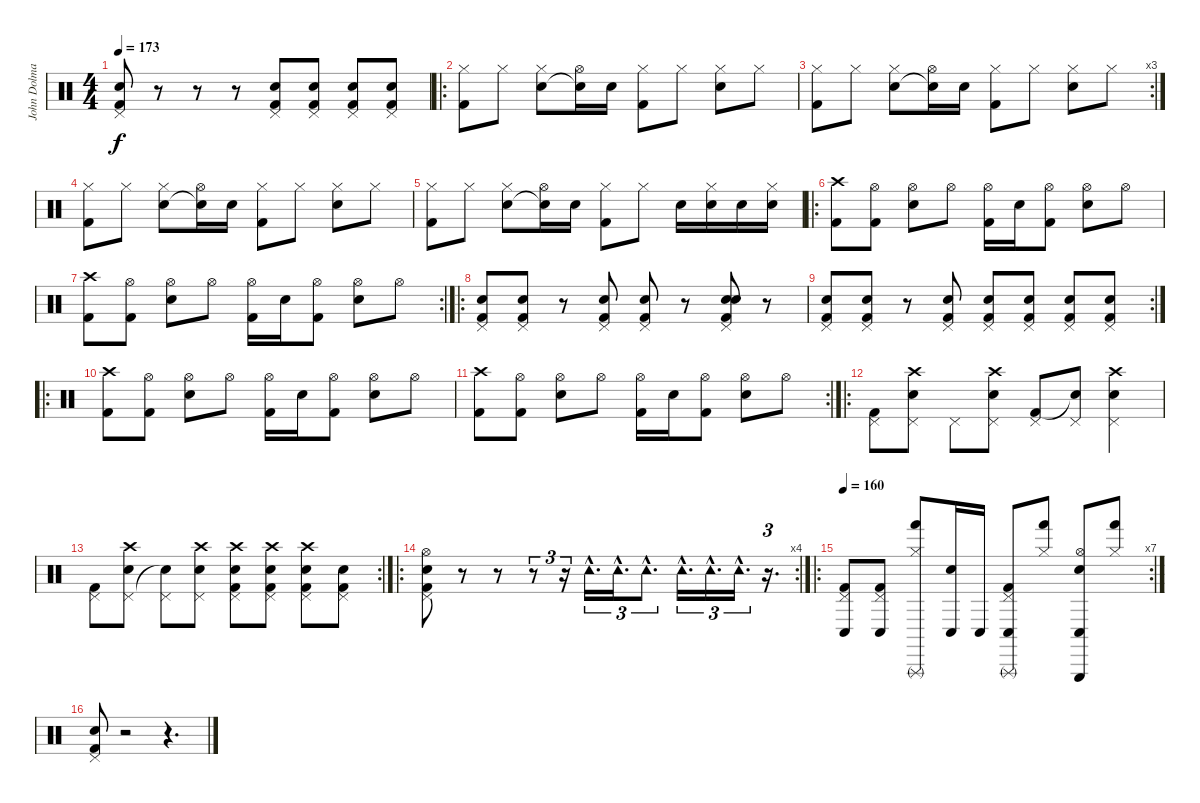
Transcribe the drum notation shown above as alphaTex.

\track ("John Dolmayan" "John Dolma") {instrument percussion}
\staff {score}
\articulation defaults
\ts (4 4)
\tempo 173
\clef neutral
\ks c
("Pedal Hi-Hat (hit)" "Electric Snare (hit)" "Kick (hit) 2").8{dy f} r.8 r.8 r.8 ("Pedal Hi-Hat (hit)" "Electric Snare (hit)" "Kick (hit) 2").8 ("Pedal Hi-Hat (hit)" "Electric Snare (hit)" "Kick (hit) 2").8 ("Pedal Hi-Hat (hit)" "Electric Snare (hit)" "Kick (hit) 2").8 ("Pedal Hi-Hat (hit)" "Electric Snare (hit)" "Kick (hit) 2").8 |
\ro
("Hi-Hat (closed)" "Kick (hit) 2").8 "Hi-Hat (closed)".8 ("Hi-Hat (closed)" "Electric Snare (hit)").8 ("Hi-Hat (open)" "Snare (hit)"{t}).16 "Electric Snare (hit)".16 ("Hi-Hat (closed)" "Kick (hit) 2").8 "Hi-Hat (closed)".8 ("Hi-Hat (closed)" "Electric Snare (hit)").8 "Hi-Hat (closed)".8 |
\rc 3
("Hi-Hat (closed)" "Kick (hit) 2").8 "Hi-Hat (closed)".8 ("Hi-Hat (closed)" "Electric Snare (hit)").8 ("Hi-Hat (open)" "Snare (hit)"{t}).16 "Electric Snare (hit)".16 ("Hi-Hat (closed)" "Kick (hit) 2").8 "Hi-Hat (closed)".8 ("Hi-Hat (closed)" "Electric Snare (hit)").8 "Hi-Hat (closed)".8 |
("Hi-Hat (closed)" "Kick (hit) 2").8 "Hi-Hat (closed)".8 ("Hi-Hat (closed)" "Electric Snare (hit)").8 ("Hi-Hat (open)" "Snare (hit)"{t}).16 "Electric Snare (hit)".16 ("Hi-Hat (closed)" "Kick (hit) 2").8 "Hi-Hat (closed)".8 ("Hi-Hat (closed)" "Electric Snare (hit)").8 "Hi-Hat (closed)".8 |
("Hi-Hat (closed)" "Kick (hit) 2").8 "Hi-Hat (closed)".8 ("Hi-Hat (closed)" "Electric Snare (hit)").8 ("Hi-Hat (open)" "Snare (hit)"{t}).16 "Electric Snare (hit)".16 ("Hi-Hat (closed)" "Kick (hit) 2").8 "Hi-Hat (closed)".8 "Electric Snare (hit)".16 ("Hi-Hat (closed)" "Electric Snare (hit)").16 "Electric Snare (hit)".16 ("Hi-Hat (closed)" "Electric Snare (hit)").16 |
\ro
("Crash high (hit)" "Kick (hit) 2").8 ("Hi-Hat (open)" "Kick (hit) 2").8 ("Hi-Hat (open)" "Electric Snare (hit)").8 "Hi-Hat (open)".8 ("Hi-Hat (open)" "Kick (hit) 2").16 "Electric Snare (hit)".16 ("Hi-Hat (open)" "Kick (hit) 2").8 ("Hi-Hat (open)" "Electric Snare (hit)").8 "Hi-Hat (open)".8 |
\rc 2
("Crash high (hit)" "Kick (hit) 2").8 ("Hi-Hat (open)" "Kick (hit) 2").8 ("Hi-Hat (open)" "Electric Snare (hit)").8 "Hi-Hat (open)".8 ("Hi-Hat (open)" "Kick (hit) 2").16 "Electric Snare (hit)".16 ("Hi-Hat (open)" "Kick (hit) 2").8 ("Hi-Hat (open)" "Electric Snare (hit)").8 "Hi-Hat (open)".8 |
\ro
("Pedal Hi-Hat (hit)" "Electric Snare (hit)" "Kick (hit) 2").8 ("Pedal Hi-Hat (hit)" "Electric Snare (hit)" "Kick (hit) 2").8 r.8 ("Pedal Hi-Hat (hit)" "Electric Snare (hit)" "Kick (hit) 2").8 ("Pedal Hi-Hat (hit)" "Electric Snare (hit)" "Kick (hit) 2").8 r.8 ("Pedal Hi-Hat (hit)" "Electric Snare (hit)" "Electric Snare (hit)" "Kick (hit) 2").8 r.8 |
\rc 2
("Pedal Hi-Hat (hit)" "Electric Snare (hit)" "Kick (hit) 2").8 ("Pedal Hi-Hat (hit)" "Electric Snare (hit)" "Kick (hit) 2").8 r.8 ("Pedal Hi-Hat (hit)" "Electric Snare (hit)" "Kick (hit) 2").8 ("Pedal Hi-Hat (hit)" "Electric Snare (hit)" "Kick (hit) 2").8 ("Pedal Hi-Hat (hit)" "Electric Snare (hit)" "Kick (hit) 2").8 ("Pedal Hi-Hat (hit)" "Electric Snare (hit)" "Kick (hit) 2").8 ("Pedal Hi-Hat (hit)" "Electric Snare (hit)" "Kick (hit) 2").8 |
\ro
("Crash high (hit)" "Kick (hit) 2").8 ("Hi-Hat (open)" "Kick (hit) 2").8 ("Hi-Hat (open)" "Electric Snare (hit)").8 "Hi-Hat (open)".8 ("Hi-Hat (open)" "Kick (hit) 2").16 "Electric Snare (hit)".16 ("Hi-Hat (open)" "Kick (hit) 2").8 ("Hi-Hat (open)" "Electric Snare (hit)").8 "Hi-Hat (open)".8 |
\rc 2
("Crash high (hit)" "Kick (hit) 2").8 ("Hi-Hat (open)" "Kick (hit) 2").8 ("Hi-Hat (open)" "Electric Snare (hit)").8 "Hi-Hat (open)".8 ("Hi-Hat (open)" "Kick (hit) 2").16 "Electric Snare (hit)".16 ("Hi-Hat (open)" "Kick (hit) 2").8 ("Hi-Hat (open)" "Electric Snare (hit)").8 "Hi-Hat (open)".8 |
\ro
("Pedal Hi-Hat (hit)" "Kick (hit) 2").8 ("Crash high (hit)" "Pedal Hi-Hat (hit)" "Electric Snare (hit)").8 "Pedal Hi-Hat (hit)".8 ("Crash high (hit)" "Pedal Hi-Hat (hit)" "Electric Snare (hit)").8 ("Pedal Hi-Hat (hit)" "Kick (hit) 2").8 ("Pedal Hi-Hat (hit)" "Snare (hit)"{t}).8 ("Crash high (hit)" "Pedal Hi-Hat (hit)" "Electric Snare (hit)").4 |
\rc 2
("Pedal Hi-Hat (hit)" "Kick (hit) 2").8 ("Crash high (hit)" "Pedal Hi-Hat (hit)" "Electric Snare (hit)").8 ("Pedal Hi-Hat (hit)" "Snare (hit)"{t}).8 ("Crash high (hit)" "Pedal Hi-Hat (hit)" "Electric Snare (hit)").8 ("Crash high (hit)" "Pedal Hi-Hat (hit)" "Electric Snare (hit)" "Kick (hit) 2").8 ("Crash high (hit)" "Pedal Hi-Hat (hit)" "Electric Snare (hit)" "Kick (hit) 2").8 ("Crash high (hit)" "Pedal Hi-Hat (hit)" "Electric Snare (hit)" "Kick (hit) 2").8 ("Pedal Hi-Hat (hit)" "Electric Snare (hit)" "Kick (hit) 2").8 |
\ro
\rc 4
("Hi-Hat (open)" "Pedal Hi-Hat (hit)" "Electric Snare (hit)" "Kick (hit) 2").8 r.8 r.8 r.8{tu (3 2)} r.16{tu (3 2)} "Tambourine (hit)"{hac}.16{d tu (3 2)} "Tambourine (hit)"{hac}.16{d tu (3 2)} "Tambourine (hit)"{hac}.8{d tu (3 2)} "Tambourine (hit)"{hac}.16{d tu (3 2)} "Tambourine (hit)"{hac}.16{d tu (3 2)} "Tambourine (hit)"{hac}.16{d tu (3 2)} r.16{d tu (3 2)} |
\ro
\rc 7
\tempo 160
("Pedal Hi-Hat (hit)" "Kick (hit) 2" "Conga low (hit)").8 ("Pedal Hi-Hat (hit)" "Kick (hit) 2" "Conga low (hit)").8 ("Hi-Hat (closed)" "Triangle (rnute)" "Hand (hit)").8 ("Electric Snare (hit)" "Conga low (hit)").16 "Conga low (hit)".16 ("Pedal Hi-Hat (hit)" "Kick (hit) 2" "Triangle (rnute)" "Conga low (hit)").8 ("Hi-Hat (closed)" "Hand (hit)").8 ("Hi-Hat (open)" "Electric Snare (hit)" "Triangle (hit)" "Conga low (hit)").8 ("Hi-Hat (closed)" "Hand (hit)").8 |
("Pedal Hi-Hat (hit)" "Electric Snare (hit)" "Kick (hit) 2").8 r.2 r.4{d}
